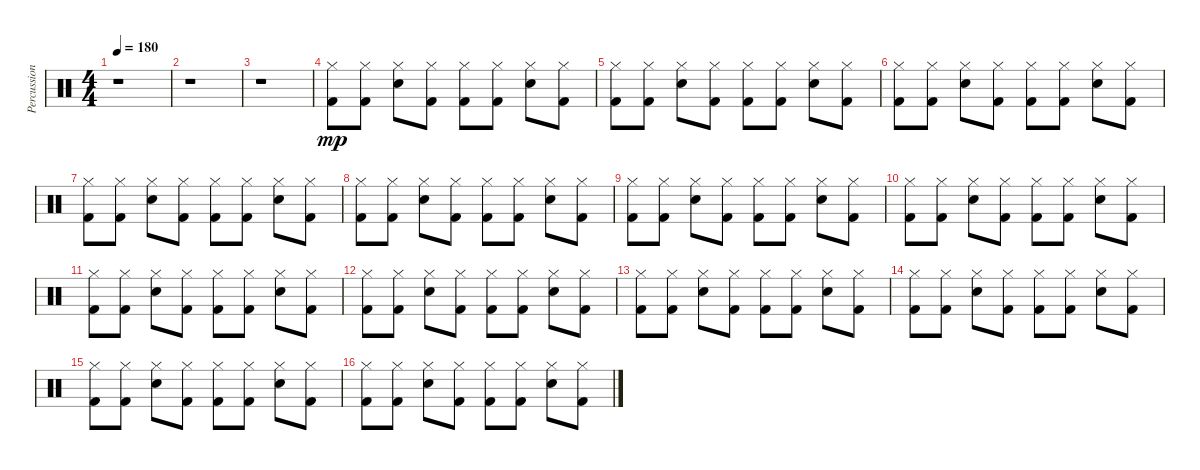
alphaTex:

\track ("Percussion" "Percussion") {instrument percussion}
\staff {score}
\articulation defaults
\ts (4 4)
\tempo 180
\clef neutral
\ks c
r.1{dy mp} |
r.1 |
r.1 |
("Hi-Hat (closed)" "Kick (hit) 2").8 ("Hi-Hat (closed)" "Kick (hit) 2").8 ("Hi-Hat (closed)" "Snare (hit) 2").8 ("Hi-Hat (closed)" "Kick (hit) 2").8 ("Hi-Hat (closed)" "Kick (hit) 2").8 ("Hi-Hat (closed)" "Kick (hit) 2").8 ("Hi-Hat (closed)" "Snare (hit) 2").8 ("Hi-Hat (closed)" "Kick (hit) 2").8 |
("Hi-Hat (closed)" "Kick (hit) 2").8 ("Hi-Hat (closed)" "Kick (hit) 2").8 ("Hi-Hat (closed)" "Snare (hit) 2").8 ("Hi-Hat (closed)" "Kick (hit) 2").8 ("Hi-Hat (closed)" "Kick (hit) 2").8 ("Hi-Hat (closed)" "Kick (hit) 2").8 ("Hi-Hat (closed)" "Snare (hit) 2").8 ("Hi-Hat (closed)" "Kick (hit) 2").8 |
("Hi-Hat (closed)" "Kick (hit) 2").8 ("Hi-Hat (closed)" "Kick (hit) 2").8 ("Hi-Hat (closed)" "Snare (hit) 2").8 ("Hi-Hat (closed)" "Kick (hit) 2").8 ("Hi-Hat (closed)" "Kick (hit) 2").8 ("Hi-Hat (closed)" "Kick (hit) 2").8 ("Hi-Hat (closed)" "Snare (hit) 2").8 ("Hi-Hat (closed)" "Kick (hit) 2").8 |
("Hi-Hat (closed)" "Kick (hit) 2").8 ("Hi-Hat (closed)" "Kick (hit) 2").8 ("Hi-Hat (closed)" "Snare (hit) 2").8 ("Hi-Hat (closed)" "Kick (hit) 2").8 ("Hi-Hat (closed)" "Kick (hit) 2").8 ("Hi-Hat (closed)" "Kick (hit) 2").8 ("Hi-Hat (closed)" "Snare (hit) 2").8 ("Hi-Hat (closed)" "Kick (hit) 2").8 |
("Hi-Hat (closed)" "Kick (hit) 2").8 ("Hi-Hat (closed)" "Kick (hit) 2").8 ("Hi-Hat (closed)" "Snare (hit) 2").8 ("Hi-Hat (closed)" "Kick (hit) 2").8 ("Hi-Hat (closed)" "Kick (hit) 2").8 ("Hi-Hat (closed)" "Kick (hit) 2").8 ("Hi-Hat (closed)" "Snare (hit) 2").8 ("Hi-Hat (closed)" "Kick (hit) 2").8 |
("Hi-Hat (closed)" "Kick (hit) 2").8 ("Hi-Hat (closed)" "Kick (hit) 2").8 ("Hi-Hat (closed)" "Snare (hit) 2").8 ("Hi-Hat (closed)" "Kick (hit) 2").8 ("Hi-Hat (closed)" "Kick (hit) 2").8 ("Hi-Hat (closed)" "Kick (hit) 2").8 ("Hi-Hat (closed)" "Snare (hit) 2").8 ("Hi-Hat (closed)" "Kick (hit) 2").8 |
("Hi-Hat (closed)" "Kick (hit) 2").8 ("Hi-Hat (closed)" "Kick (hit) 2").8 ("Hi-Hat (closed)" "Snare (hit) 2").8 ("Hi-Hat (closed)" "Kick (hit) 2").8 ("Hi-Hat (closed)" "Kick (hit) 2").8 ("Hi-Hat (closed)" "Kick (hit) 2").8 ("Hi-Hat (closed)" "Snare (hit) 2").8 ("Hi-Hat (closed)" "Kick (hit) 2").8 |
("Hi-Hat (closed)" "Kick (hit) 2").8 ("Hi-Hat (closed)" "Kick (hit) 2").8 ("Hi-Hat (closed)" "Snare (hit) 2").8 ("Hi-Hat (closed)" "Kick (hit) 2").8 ("Hi-Hat (closed)" "Kick (hit) 2").8 ("Hi-Hat (closed)" "Kick (hit) 2").8 ("Hi-Hat (closed)" "Snare (hit) 2").8 ("Hi-Hat (closed)" "Kick (hit) 2").8 |
("Hi-Hat (closed)" "Kick (hit) 2").8 ("Hi-Hat (closed)" "Kick (hit) 2").8 ("Hi-Hat (closed)" "Snare (hit) 2").8 ("Hi-Hat (closed)" "Kick (hit) 2").8 ("Hi-Hat (closed)" "Kick (hit) 2").8 ("Hi-Hat (closed)" "Kick (hit) 2").8 ("Hi-Hat (closed)" "Snare (hit) 2").8 ("Hi-Hat (closed)" "Kick (hit) 2").8 |
("Hi-Hat (closed)" "Kick (hit) 2").8 ("Hi-Hat (closed)" "Kick (hit) 2").8 ("Hi-Hat (closed)" "Snare (hit) 2").8 ("Hi-Hat (closed)" "Kick (hit) 2").8 ("Hi-Hat (closed)" "Kick (hit) 2").8 ("Hi-Hat (closed)" "Kick (hit) 2").8 ("Hi-Hat (closed)" "Snare (hit) 2").8 ("Hi-Hat (closed)" "Kick (hit) 2").8 |
("Hi-Hat (closed)" "Kick (hit) 2").8 ("Hi-Hat (closed)" "Kick (hit) 2").8 ("Hi-Hat (closed)" "Snare (hit) 2").8 ("Hi-Hat (closed)" "Kick (hit) 2").8 ("Hi-Hat (closed)" "Kick (hit) 2").8 ("Hi-Hat (closed)" "Kick (hit) 2").8 ("Hi-Hat (closed)" "Snare (hit) 2").8 ("Hi-Hat (closed)" "Kick (hit) 2").8 |
("Hi-Hat (closed)" "Kick (hit) 2").8 ("Hi-Hat (closed)" "Kick (hit) 2").8 ("Hi-Hat (closed)" "Snare (hit) 2").8 ("Hi-Hat (closed)" "Kick (hit) 2").8 ("Hi-Hat (closed)" "Kick (hit) 2").8 ("Hi-Hat (closed)" "Kick (hit) 2").8 ("Hi-Hat (closed)" "Snare (hit) 2").8 ("Hi-Hat (closed)" "Kick (hit) 2").8 |
("Hi-Hat (closed)" "Kick (hit) 2").8 ("Hi-Hat (closed)" "Kick (hit) 2").8 ("Hi-Hat (closed)" "Snare (hit) 2").8 ("Hi-Hat (closed)" "Kick (hit) 2").8 ("Hi-Hat (closed)" "Kick (hit) 2").8 ("Hi-Hat (closed)" "Kick (hit) 2").8 ("Hi-Hat (closed)" "Snare (hit) 2").8 ("Hi-Hat (closed)" "Kick (hit) 2").8
